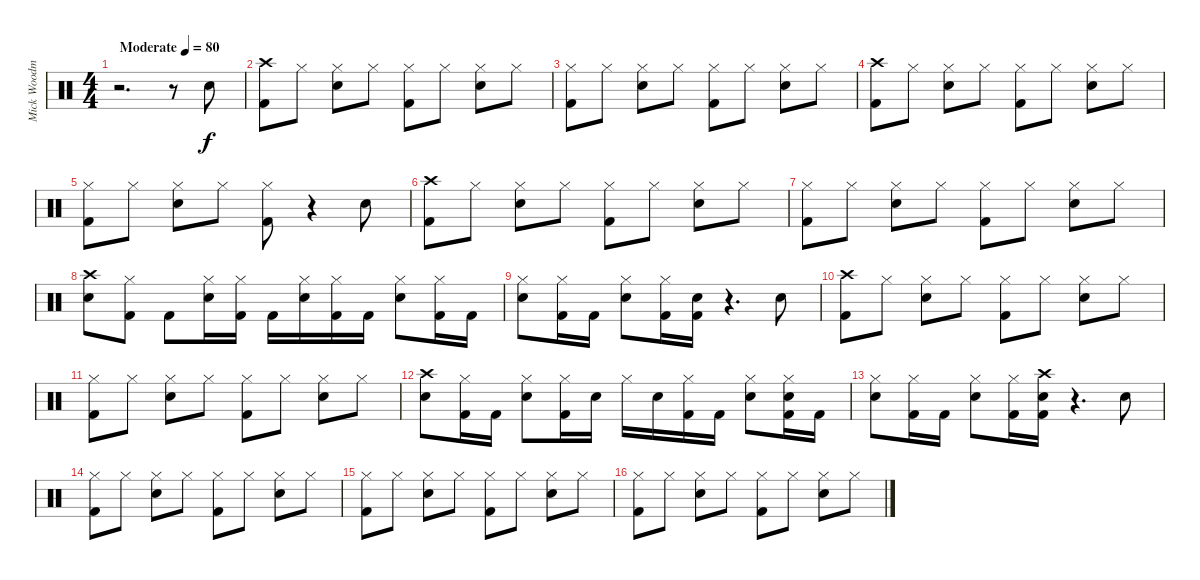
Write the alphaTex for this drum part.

\track ("Mick Woodmansey" "Mick Woodm") {instrument percussion}
\staff {score}
\articulation defaults
\ts (4 4)
\tempo (80 "Moderate")
\clef neutral
\ks c
r.2{d dy f} r.8 "Snare (hit) 2".8 |
("Crash high (hit)" "Kick (hit) 2").8 "Hi-Hat (closed)".8 ("Hi-Hat (closed)" "Snare (hit) 2").8 "Hi-Hat (closed)".8 ("Hi-Hat (closed)" "Kick (hit) 2").8 "Hi-Hat (closed)".8 ("Hi-Hat (closed)" "Snare (hit) 2").8 "Hi-Hat (closed)".8 |
("Hi-Hat (closed)" "Kick (hit) 2").8 "Hi-Hat (closed)".8 ("Hi-Hat (closed)" "Snare (hit) 2").8 "Hi-Hat (closed)".8 ("Hi-Hat (closed)" "Kick (hit) 2").8 "Hi-Hat (closed)".8 ("Hi-Hat (closed)" "Snare (hit) 2").8 "Hi-Hat (closed)".8 |
("Crash high (hit)" "Kick (hit) 2").8 "Hi-Hat (closed)".8 ("Hi-Hat (closed)" "Snare (hit) 2").8 "Hi-Hat (closed)".8 ("Hi-Hat (closed)" "Kick (hit) 2").8 "Hi-Hat (closed)".8 ("Hi-Hat (closed)" "Snare (hit) 2").8 "Hi-Hat (closed)".8 |
("Hi-Hat (closed)" "Kick (hit) 2").8 "Hi-Hat (closed)".8 ("Hi-Hat (closed)" "Snare (hit) 2").8 "Hi-Hat (closed)".8 ("Hi-Hat (closed)" "Kick (hit) 2").8 r.4 "Snare (hit) 2".8 |
("Crash high (hit)" "Kick (hit) 2").8 "Hi-Hat (closed)".8 ("Hi-Hat (closed)" "Snare (hit) 2").8 "Hi-Hat (closed)".8 ("Hi-Hat (closed)" "Kick (hit) 2").8 "Hi-Hat (closed)".8 ("Hi-Hat (closed)" "Snare (hit) 2").8 "Hi-Hat (closed)".8 |
("Hi-Hat (closed)" "Kick (hit) 2").8 "Hi-Hat (closed)".8 ("Hi-Hat (closed)" "Snare (hit) 2").8 "Hi-Hat (closed)".8 ("Hi-Hat (closed)" "Kick (hit) 2").8 "Hi-Hat (closed)".8 ("Hi-Hat (closed)" "Snare (hit) 2").8 "Hi-Hat (closed)".8 |
("Snare (hit) 2" "Crash high (hit)").8 ("Kick (hit) 2" "Hi-Hat (closed)").8 "Kick (hit) 2".8 ("Hi-Hat (closed)" "Snare (hit) 2").16 ("Kick (hit) 2" "Hi-Hat (closed)").16 "Kick (hit) 2".16 ("Snare (hit) 2" "Hi-Hat (closed)").16 ("Kick (hit) 2" "Hi-Hat (closed)").16 "Kick (hit) 2".16 ("Hi-Hat (closed)" "Snare (hit) 2").8 ("Kick (hit) 2" "Hi-Hat (closed)").16 "Kick (hit) 2".16 |
("Hi-Hat (closed)" "Snare (hit) 2").8 ("Kick (hit) 2" "Hi-Hat (closed)").16 "Kick (hit) 2".16 ("Hi-Hat (closed)" "Snare (hit) 2").8 ("Kick (hit) 2" "Hi-Hat (closed)").16 ("Snare (hit) 2" "Kick (hit) 2").16 r.4{d} "Snare (hit) 2".8 |
("Crash high (hit)" "Kick (hit) 2").8 "Hi-Hat (closed)".8 ("Hi-Hat (closed)" "Snare (hit) 2").8 "Hi-Hat (closed)".8 ("Hi-Hat (closed)" "Kick (hit) 2").8 "Hi-Hat (closed)".8 ("Hi-Hat (closed)" "Snare (hit) 2").8 "Hi-Hat (closed)".8 |
("Hi-Hat (closed)" "Kick (hit) 2").8 "Hi-Hat (closed)".8 ("Hi-Hat (closed)" "Snare (hit) 2").8 "Hi-Hat (closed)".8 ("Hi-Hat (closed)" "Kick (hit) 2").8 "Hi-Hat (closed)".8 ("Hi-Hat (closed)" "Snare (hit) 2").8 "Hi-Hat (closed)".8 |
("Snare (hit) 2" "Crash high (hit)").8 ("Kick (hit) 2" "Hi-Hat (closed)").16 "Kick (hit) 2".16 ("Hi-Hat (closed)" "Snare (hit) 2").8 ("Kick (hit) 2" "Hi-Hat (closed)").16 "Snare (hit) 2".16 "Hi-Hat (closed)".16 "Snare (hit) 2".16 ("Kick (hit) 2" "Hi-Hat (closed)").16 "Kick (hit) 2".16 ("Hi-Hat (closed)" "Snare (hit) 2").8 ("Snare (hit) 2" "Kick (hit) 2" "Hi-Hat (closed)").16 "Kick (hit) 2".16 |
("Hi-Hat (closed)" "Snare (hit) 2").8 ("Kick (hit) 2" "Hi-Hat (closed)").16 "Kick (hit) 2".16 ("Hi-Hat (closed)" "Snare (hit) 2").8 ("Kick (hit) 2" "Hi-Hat (closed)").16 ("Crash high (hit)" "Snare (hit) 2" "Kick (hit) 2").16 r.4{d} "Snare (hit) 2".8 |
("Hi-Hat (closed)" "Kick (hit) 2").8 "Hi-Hat (closed)".8 ("Hi-Hat (closed)" "Snare (hit) 2").8 "Hi-Hat (closed)".8 ("Hi-Hat (closed)" "Kick (hit) 2").8 "Hi-Hat (closed)".8 ("Hi-Hat (closed)" "Snare (hit) 2").8 "Hi-Hat (closed)".8 |
("Hi-Hat (closed)" "Kick (hit) 2").8 "Hi-Hat (closed)".8 ("Hi-Hat (closed)" "Snare (hit) 2").8 "Hi-Hat (closed)".8 ("Hi-Hat (closed)" "Kick (hit) 2").8 "Hi-Hat (closed)".8 ("Hi-Hat (closed)" "Snare (hit) 2").8 "Hi-Hat (closed)".8 |
("Hi-Hat (closed)" "Kick (hit) 2").8 "Hi-Hat (closed)".8 ("Hi-Hat (closed)" "Snare (hit) 2").8 "Hi-Hat (closed)".8 ("Hi-Hat (closed)" "Kick (hit) 2").8 "Hi-Hat (closed)".8 ("Hi-Hat (closed)" "Snare (hit) 2").8 "Hi-Hat (closed)".8
